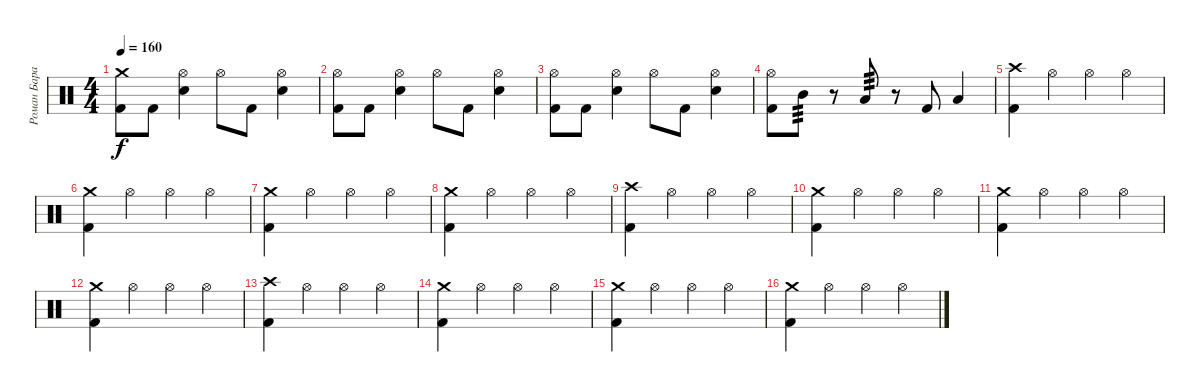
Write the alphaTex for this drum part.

\track ("Роман Баранюк" "Роман Бара") {instrument percussion}
\staff {score}
\articulation defaults
\ts (4 4)
\tempo 160
\clef neutral
\ks c
("Crash medium (hit)" "Kick (hit) 2").8{dy f} "Kick (hit) 2".8 ("Hi-Hat (open)" "Snare (hit) 2").4 "Hi-Hat (open)".8 "Kick (hit) 2".8 ("Hi-Hat (open)" "Snare (hit) 2").4 |
("Hi-Hat (open)" "Kick (hit) 2").8 "Kick (hit) 2".8 ("Hi-Hat (open)" "Snare (hit) 2").4 "Hi-Hat (open)".8 "Kick (hit) 2".8 ("Hi-Hat (open)" "Snare (hit) 2").4 |
("Hi-Hat (open)" "Kick (hit) 2").8 "Kick (hit) 2".8 ("Hi-Hat (open)" "Snare (hit) 2").4 "Hi-Hat (open)".8 "Kick (hit) 2".8 ("Hi-Hat (open)" "Snare (hit) 2").4 |
("Hi-Hat (open)" "Kick (hit) 2").8 "Mid Tom (hit)".8{tp 3} r.8 "Low Tom (hit)".8{tp 3} r.8 "Kick (hit) 2".8 "Low Tom (hit)".4 |
("Crash high (hit)" "Kick (hit) 2").4 "Hi-Hat (open)".4 "Hi-Hat (open)".4 "Hi-Hat (open)".4 |
("Crash medium (hit)" "Kick (hit) 2").4 "Hi-Hat (open)".4 "Hi-Hat (open)".4 "Hi-Hat (open)".4 |
("Crash medium (hit)" "Kick (hit) 2").4 "Hi-Hat (open)".4 "Hi-Hat (open)".4 "Hi-Hat (open)".4 |
("Crash medium (hit)" "Kick (hit) 2").4 "Hi-Hat (open)".4 "Hi-Hat (open)".4 "Hi-Hat (open)".4 |
("Crash high (hit)" "Kick (hit) 2").4 "Hi-Hat (open)".4 "Hi-Hat (open)".4 "Hi-Hat (open)".4 |
("Crash medium (hit)" "Kick (hit) 2").4 "Hi-Hat (open)".4 "Hi-Hat (open)".4 "Hi-Hat (open)".4 |
("Crash medium (hit)" "Kick (hit) 2").4 "Hi-Hat (open)".4 "Hi-Hat (open)".4 "Hi-Hat (open)".4 |
("Crash medium (hit)" "Kick (hit) 2").4 "Hi-Hat (open)".4 "Hi-Hat (open)".4 "Hi-Hat (open)".4 |
("Crash high (hit)" "Kick (hit) 2").4 "Hi-Hat (open)".4 "Hi-Hat (open)".4 "Hi-Hat (open)".4 |
("Crash medium (hit)" "Kick (hit) 2").4 "Hi-Hat (open)".4 "Hi-Hat (open)".4 "Hi-Hat (open)".4 |
("Crash medium (hit)" "Kick (hit) 2").4 "Hi-Hat (open)".4 "Hi-Hat (open)".4 "Hi-Hat (open)".4 |
("Crash medium (hit)" "Kick (hit) 2").4 "Hi-Hat (open)".4 "Hi-Hat (open)".4 "Hi-Hat (open)".4
